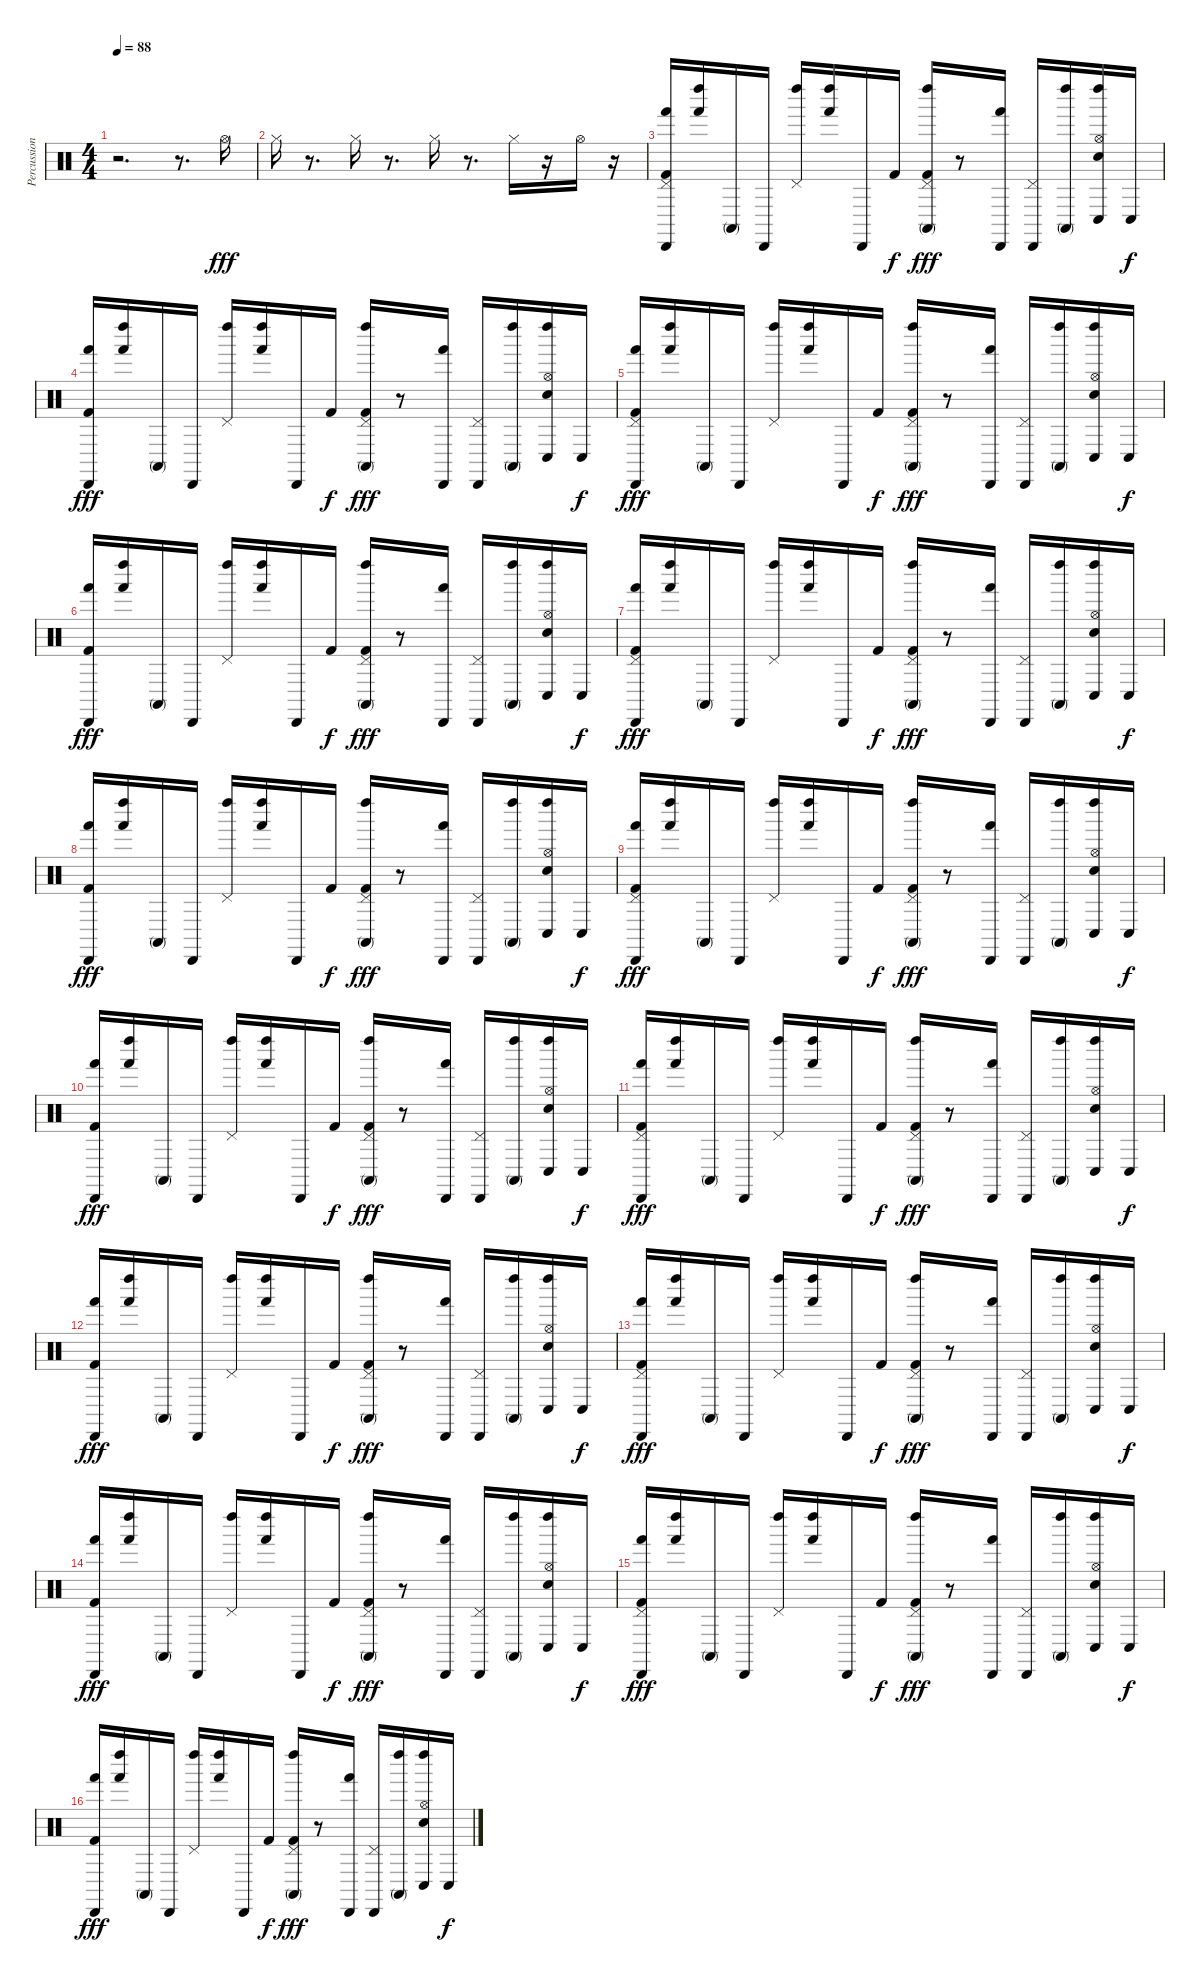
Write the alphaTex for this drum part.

\track ("Percussion" "Percussion") {instrument percussion}
\staff {score}
\articulation defaults
\ts (4 4)
\tempo 88
\clef neutral
\ks c
r.2{d dy fff} r.8{d} "Hi-Hat (open)".16 |
"Hi-Hat (closed)".16 r.8{d} "Hi-Hat (closed)".16 r.8{d} "Hi-Hat (closed)".16 r.8{d} "Hi-Hat (closed)".16 r.16 "Hi-Hat (open)".16 r.16 |
("Pedal Hi-Hat (hit)" "Kick (hit) 2" "Hand (hit)" "Cabasa (hit)").16 ("Hand (hit)" "Left Maraca (hit)").16 "Conga high (mute)".16 "Cabasa (hit)".16 ("Pedal Hi-Hat (hit)" "Left Maraca (hit)").16 ("Left Maraca (hit)" "Hand (hit)").16 "Cabasa (hit)".16 "Kick (hit) 2".16{dy f} ("Pedal Hi-Hat (hit)" "Left Maraca (hit)" "Conga high (mute)" "Kick (hit) 2").16{dy fff} r.8 ("Cabasa (hit)" "Hand (hit)").16 ("Pedal Hi-Hat (hit)" "Cabasa (hit)").16 ("Left Maraca (hit)" "Conga high (mute)").16 ("Hi-Hat (open)" "Snare (hit) 2" "Left Maraca (hit)" "Conga low (hit)").16 "Conga low (hit)".16{dy f} |
("Hand (hit)" "Cabasa (hit)" "Kick (hit) 2").16{dy fff} ("Hand (hit)" "Left Maraca (hit)").16 "Conga high (mute)".16 "Cabasa (hit)".16 ("Pedal Hi-Hat (hit)" "Left Maraca (hit)").16 ("Left Maraca (hit)" "Hand (hit)").16 "Cabasa (hit)".16 "Kick (hit) 2".16{dy f} ("Pedal Hi-Hat (hit)" "Left Maraca (hit)" "Conga high (mute)" "Kick (hit) 2").16{dy fff} r.8 ("Cabasa (hit)" "Hand (hit)").16 ("Pedal Hi-Hat (hit)" "Cabasa (hit)").16 ("Left Maraca (hit)" "Conga high (mute)").16 ("Hi-Hat (open)" "Snare (hit) 2" "Left Maraca (hit)" "Conga low (hit)").16 "Conga low (hit)".16{dy f} |
("Pedal Hi-Hat (hit)" "Kick (hit) 2" "Hand (hit)" "Cabasa (hit)").16{dy fff} ("Hand (hit)" "Left Maraca (hit)").16 "Conga high (mute)".16 "Cabasa (hit)".16 ("Pedal Hi-Hat (hit)" "Left Maraca (hit)").16 ("Left Maraca (hit)" "Hand (hit)").16 "Cabasa (hit)".16 "Kick (hit) 2".16{dy f} ("Pedal Hi-Hat (hit)" "Left Maraca (hit)" "Conga high (mute)" "Kick (hit) 2").16{dy fff} r.8 ("Cabasa (hit)" "Hand (hit)").16 ("Pedal Hi-Hat (hit)" "Cabasa (hit)").16 ("Left Maraca (hit)" "Conga high (mute)").16 ("Hi-Hat (open)" "Snare (hit) 2" "Left Maraca (hit)" "Conga low (hit)").16 "Conga low (hit)".16{dy f} |
("Hand (hit)" "Cabasa (hit)" "Kick (hit) 2").16{dy fff} ("Hand (hit)" "Left Maraca (hit)").16 "Conga high (mute)".16 "Cabasa (hit)".16 ("Pedal Hi-Hat (hit)" "Left Maraca (hit)").16 ("Left Maraca (hit)" "Hand (hit)").16 "Cabasa (hit)".16 "Kick (hit) 2".16{dy f} ("Pedal Hi-Hat (hit)" "Left Maraca (hit)" "Conga high (mute)" "Kick (hit) 2").16{dy fff} r.8 ("Cabasa (hit)" "Hand (hit)").16 ("Pedal Hi-Hat (hit)" "Cabasa (hit)").16 ("Left Maraca (hit)" "Conga high (mute)").16 ("Hi-Hat (open)" "Snare (hit) 2" "Left Maraca (hit)" "Conga low (hit)").16 "Conga low (hit)".16{dy f} |
("Pedal Hi-Hat (hit)" "Kick (hit) 2" "Hand (hit)" "Cabasa (hit)").16{dy fff} ("Hand (hit)" "Left Maraca (hit)").16 "Conga high (mute)".16 "Cabasa (hit)".16 ("Pedal Hi-Hat (hit)" "Left Maraca (hit)").16 ("Left Maraca (hit)" "Hand (hit)").16 "Cabasa (hit)".16 "Kick (hit) 2".16{dy f} ("Pedal Hi-Hat (hit)" "Left Maraca (hit)" "Conga high (mute)" "Kick (hit) 2").16{dy fff} r.8 ("Cabasa (hit)" "Hand (hit)").16 ("Pedal Hi-Hat (hit)" "Cabasa (hit)").16 ("Left Maraca (hit)" "Conga high (mute)").16 ("Hi-Hat (open)" "Snare (hit) 2" "Left Maraca (hit)" "Conga low (hit)").16 "Conga low (hit)".16{dy f} |
("Hand (hit)" "Cabasa (hit)" "Kick (hit) 2").16{dy fff} ("Hand (hit)" "Left Maraca (hit)").16 "Conga high (mute)".16 "Cabasa (hit)".16 ("Pedal Hi-Hat (hit)" "Left Maraca (hit)").16 ("Left Maraca (hit)" "Hand (hit)").16 "Cabasa (hit)".16 "Kick (hit) 2".16{dy f} ("Pedal Hi-Hat (hit)" "Left Maraca (hit)" "Conga high (mute)" "Kick (hit) 2").16{dy fff} r.8 ("Cabasa (hit)" "Hand (hit)").16 ("Pedal Hi-Hat (hit)" "Cabasa (hit)").16 ("Left Maraca (hit)" "Conga high (mute)").16 ("Hi-Hat (open)" "Snare (hit) 2" "Left Maraca (hit)" "Conga low (hit)").16 "Conga low (hit)".16{dy f} |
("Pedal Hi-Hat (hit)" "Kick (hit) 2" "Hand (hit)" "Cabasa (hit)").16{dy fff} ("Hand (hit)" "Left Maraca (hit)").16 "Conga high (mute)".16 "Cabasa (hit)".16 ("Pedal Hi-Hat (hit)" "Left Maraca (hit)").16 ("Left Maraca (hit)" "Hand (hit)").16 "Cabasa (hit)".16 "Kick (hit) 2".16{dy f} ("Pedal Hi-Hat (hit)" "Left Maraca (hit)" "Conga high (mute)" "Kick (hit) 2").16{dy fff} r.8 ("Cabasa (hit)" "Hand (hit)").16 ("Pedal Hi-Hat (hit)" "Cabasa (hit)").16 ("Left Maraca (hit)" "Conga high (mute)").16 ("Hi-Hat (open)" "Snare (hit) 2" "Left Maraca (hit)" "Conga low (hit)").16 "Conga low (hit)".16{dy f} |
("Hand (hit)" "Cabasa (hit)" "Kick (hit) 2").16{dy fff} ("Hand (hit)" "Left Maraca (hit)").16 "Conga high (mute)".16 "Cabasa (hit)".16 ("Pedal Hi-Hat (hit)" "Left Maraca (hit)").16 ("Left Maraca (hit)" "Hand (hit)").16 "Cabasa (hit)".16 "Kick (hit) 2".16{dy f} ("Pedal Hi-Hat (hit)" "Left Maraca (hit)" "Conga high (mute)" "Kick (hit) 2").16{dy fff} r.8 ("Cabasa (hit)" "Hand (hit)").16 ("Pedal Hi-Hat (hit)" "Cabasa (hit)").16 ("Left Maraca (hit)" "Conga high (mute)").16 ("Hi-Hat (open)" "Snare (hit) 2" "Left Maraca (hit)" "Conga low (hit)").16 "Conga low (hit)".16{dy f} |
("Pedal Hi-Hat (hit)" "Kick (hit) 2" "Hand (hit)" "Cabasa (hit)").16{dy fff} ("Hand (hit)" "Left Maraca (hit)").16 "Conga high (mute)".16 "Cabasa (hit)".16 ("Pedal Hi-Hat (hit)" "Left Maraca (hit)").16 ("Left Maraca (hit)" "Hand (hit)").16 "Cabasa (hit)".16 "Kick (hit) 2".16{dy f} ("Pedal Hi-Hat (hit)" "Left Maraca (hit)" "Conga high (mute)" "Kick (hit) 2").16{dy fff} r.8 ("Cabasa (hit)" "Hand (hit)").16 ("Pedal Hi-Hat (hit)" "Cabasa (hit)").16 ("Left Maraca (hit)" "Conga high (mute)").16 ("Hi-Hat (open)" "Snare (hit) 2" "Left Maraca (hit)" "Conga low (hit)").16 "Conga low (hit)".16{dy f} |
("Hand (hit)" "Cabasa (hit)" "Kick (hit) 2").16{dy fff} ("Hand (hit)" "Left Maraca (hit)").16 "Conga high (mute)".16 "Cabasa (hit)".16 ("Pedal Hi-Hat (hit)" "Left Maraca (hit)").16 ("Left Maraca (hit)" "Hand (hit)").16 "Cabasa (hit)".16 "Kick (hit) 2".16{dy f} ("Pedal Hi-Hat (hit)" "Left Maraca (hit)" "Conga high (mute)" "Kick (hit) 2").16{dy fff} r.8 ("Cabasa (hit)" "Hand (hit)").16 ("Pedal Hi-Hat (hit)" "Cabasa (hit)").16 ("Left Maraca (hit)" "Conga high (mute)").16 ("Hi-Hat (open)" "Snare (hit) 2" "Left Maraca (hit)" "Conga low (hit)").16 "Conga low (hit)".16{dy f} |
("Pedal Hi-Hat (hit)" "Kick (hit) 2" "Hand (hit)" "Cabasa (hit)").16{dy fff} ("Hand (hit)" "Left Maraca (hit)").16 "Conga high (mute)".16 "Cabasa (hit)".16 ("Pedal Hi-Hat (hit)" "Left Maraca (hit)").16 ("Left Maraca (hit)" "Hand (hit)").16 "Cabasa (hit)".16 "Kick (hit) 2".16{dy f} ("Pedal Hi-Hat (hit)" "Left Maraca (hit)" "Conga high (mute)" "Kick (hit) 2").16{dy fff} r.8 ("Cabasa (hit)" "Hand (hit)").16 ("Pedal Hi-Hat (hit)" "Cabasa (hit)").16 ("Left Maraca (hit)" "Conga high (mute)").16 ("Hi-Hat (open)" "Snare (hit) 2" "Left Maraca (hit)" "Conga low (hit)").16 "Conga low (hit)".16{dy f} |
("Hand (hit)" "Cabasa (hit)" "Kick (hit) 2").16{dy fff} ("Hand (hit)" "Left Maraca (hit)").16 "Conga high (mute)".16 "Cabasa (hit)".16 ("Pedal Hi-Hat (hit)" "Left Maraca (hit)").16 ("Left Maraca (hit)" "Hand (hit)").16 "Cabasa (hit)".16 "Kick (hit) 2".16{dy f} ("Pedal Hi-Hat (hit)" "Left Maraca (hit)" "Conga high (mute)" "Kick (hit) 2").16{dy fff} r.8 ("Cabasa (hit)" "Hand (hit)").16 ("Pedal Hi-Hat (hit)" "Cabasa (hit)").16 ("Left Maraca (hit)" "Conga high (mute)").16 ("Hi-Hat (open)" "Snare (hit) 2" "Left Maraca (hit)" "Conga low (hit)").16 "Conga low (hit)".16{dy f} |
("Pedal Hi-Hat (hit)" "Kick (hit) 2" "Hand (hit)" "Cabasa (hit)").16{dy fff} ("Hand (hit)" "Left Maraca (hit)").16 "Conga high (mute)".16 "Cabasa (hit)".16 ("Pedal Hi-Hat (hit)" "Left Maraca (hit)").16 ("Left Maraca (hit)" "Hand (hit)").16 "Cabasa (hit)".16 "Kick (hit) 2".16{dy f} ("Pedal Hi-Hat (hit)" "Left Maraca (hit)" "Conga high (mute)" "Kick (hit) 2").16{dy fff} r.8 ("Cabasa (hit)" "Hand (hit)").16 ("Pedal Hi-Hat (hit)" "Cabasa (hit)").16 ("Left Maraca (hit)" "Conga high (mute)").16 ("Hi-Hat (open)" "Snare (hit) 2" "Left Maraca (hit)" "Conga low (hit)").16 "Conga low (hit)".16{dy f} |
("Hand (hit)" "Cabasa (hit)" "Kick (hit) 2").16{dy fff} ("Hand (hit)" "Left Maraca (hit)").16 "Conga high (mute)".16 "Cabasa (hit)".16 ("Pedal Hi-Hat (hit)" "Left Maraca (hit)").16 ("Left Maraca (hit)" "Hand (hit)").16 "Cabasa (hit)".16 "Kick (hit) 2".16{dy f} ("Pedal Hi-Hat (hit)" "Left Maraca (hit)" "Conga high (mute)" "Kick (hit) 2").16{dy fff} r.8 ("Cabasa (hit)" "Hand (hit)").16 ("Pedal Hi-Hat (hit)" "Cabasa (hit)").16 ("Left Maraca (hit)" "Conga high (mute)").16 ("Hi-Hat (open)" "Snare (hit) 2" "Left Maraca (hit)" "Conga low (hit)").16 "Conga low (hit)".16{dy f}
